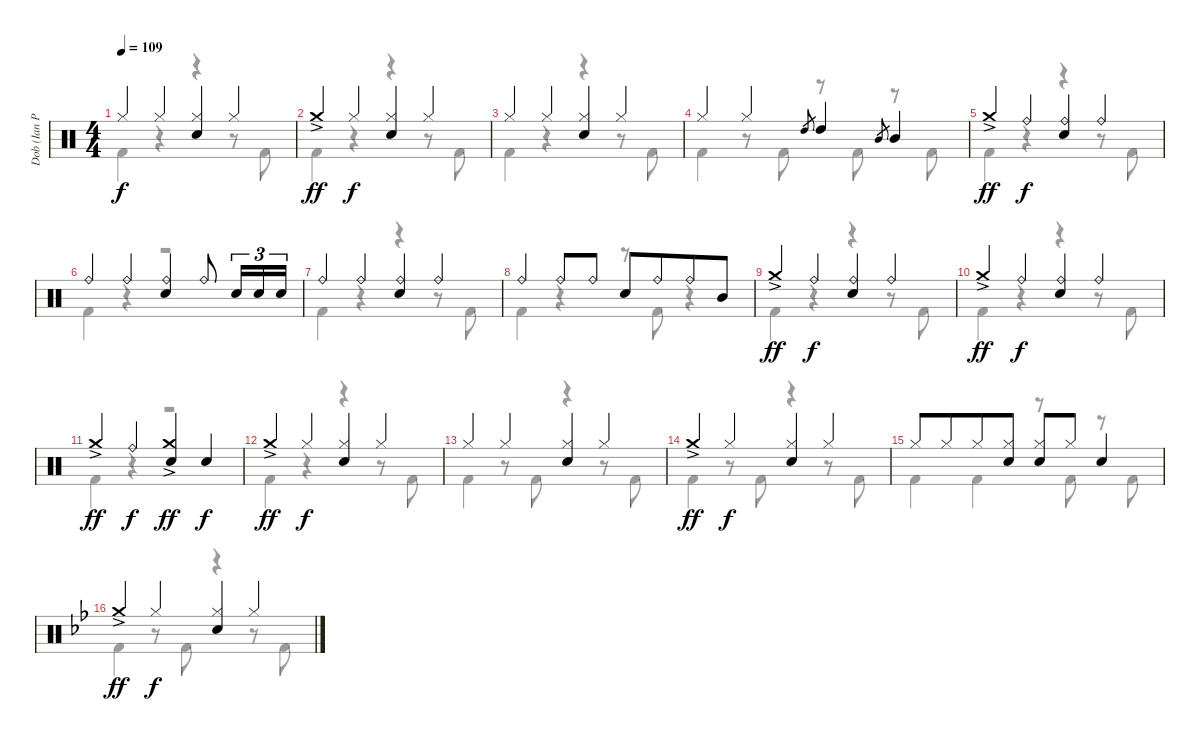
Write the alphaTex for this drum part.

\track ("Dob (Ian Paice)" "Dob (Ian P") {instrument percussion}
\staff {score}
\articulation defaults
\voice
\ts (4 4)
\tempo 109
\clef neutral
\ks c "Hi-Hat (closed)".4{dy f} "Hi-Hat (closed)".4
("Hi-Hat (closed)" "Electric Snare (hit)").4 "Hi-Hat (closed)".4 |
"Crash medium (hit)"{ac}.4{dy ff} "Hi-Hat (closed)".4{dy f} ("Hi-Hat (closed)" "Electric Snare (hit)").4 "Hi-Hat (closed)".4 |
"Hi-Hat (closed)".4 "Hi-Hat (closed)".4 ("Hi-Hat (closed)" "Electric Snare (hit)").4 "Hi-Hat (closed)".4 |
"Hi-Hat (closed)".4 "Hi-Hat (closed)".4 "High Tom (hit)"{h}.8{gr} "High Tom (hit)".4 "Mid Tom (hit)"{h}.8{gr} "Mid Tom (hit)".4 |
"Crash medium (hit)"{ac}.4{dy ff} "Ride (bell)".4{dy f} ("Ride (bell)" "Electric Snare (hit)").4 "Ride (bell)".4 |
"Ride (bell)".4 "Ride (bell)".4 ("Ride (bell)" "Electric Snare (hit)").4 "Ride (bell)".8 "Electric Snare (hit)".16{tu (3 2)} "Electric Snare (hit)".16{tu (3 2)} "Electric Snare (hit)".16{tu (3 2)} |
"Ride (bell)".4 "Ride (bell)".4 ("Ride (bell)" "Electric Snare (hit)").4 "Ride (bell)".4 |
"Ride (bell)".4 "Ride (bell)".8 "Ride (bell)".8 "Electric Snare (hit)".8 "Ride (bell)".8{beam merge} "Ride (bell)".8 "Mid Tom (hit)".8 |
"Crash medium (hit)"{ac}.4{dy ff} "Ride (bell)".4{dy f} ("Ride (bell)" "Electric Snare (hit)").4 "Ride (bell)".4 |
"Crash medium (hit)"{ac}.4{dy ff} "Ride (bell)".4{dy f} ("Ride (bell)" "Electric Snare (hit)").4 "Ride (bell)".4 |
"Crash medium (hit)"{ac}.4{dy ff} "Ride (bell)".4{dy f} ("Crash medium (hit)"{ac} "Electric Snare (hit)").4{dy ff} "Electric Snare (hit)".4{dy f} |
"Crash medium (hit)"{ac}.4{dy ff} "Hi-Hat (closed)".4{dy f} ("Hi-Hat (closed)" "Electric Snare (hit)").4 "Hi-Hat (closed)".4 |
"Hi-Hat (closed)".4 "Hi-Hat (closed)".4 ("Hi-Hat (closed)" "Electric Snare (hit)").4 "Hi-Hat (closed)".4 |
"Crash medium (hit)"{ac}.4{dy ff} "Hi-Hat (closed)".4{dy f} ("Hi-Hat (closed)" "Electric Snare (hit)").4 "Hi-Hat (closed)".4 |
"Hi-Hat (closed)".8 "Hi-Hat (closed)".8{beam merge} "Hi-Hat (closed)".8 ("Hi-Hat (closed)" "Electric Snare (hit)").8 ("Hi-Hat (closed)" "Electric Snare (hit)").8 "Hi-Hat (closed)".8 "Electric Snare (hit)".4 |
\ks bb "Crash medium (hit)"{ac}.4{dy ff} "Hi-Hat (closed)".4{dy f}
("Hi-Hat (closed)" "Electric Snare (hit)").4 "Hi-Hat (closed)".4
\voice
\clef neutral
\ottava regular
\simile none
\ks c "Kick (hit) 2".4{dy f}
r.4 r.4 r.8 "Kick (hit) 2".8 |
"Kick (hit) 2".4 r.4 r.4 r.8 "Kick (hit) 2".8 |
"Kick (hit) 2".4 r.4 r.4 r.8 "Kick (hit) 2".8 |
"Kick (hit) 2".4 r.8 "Kick (hit) 2".8 r.8 "Kick (hit) 2".8 r.8 "Kick (hit) 2".8 |
"Kick (hit) 2".4 r.4 r.4 r.8 "Kick (hit) 2".8 |
"Kick (hit) 2".4 r.4 r.2 |
"Kick (hit) 2".4 r.4 r.4 r.8 "Kick (hit) 2".8 |
"Kick (hit) 2".4 r.4 r.8 "Kick (hit) 2".8 r.4 |
"Kick (hit) 2".4 r.4 r.4 r.8 "Kick (hit) 2".8 |
"Kick (hit) 2".4 r.4 r.4 r.8 "Kick (hit) 2".8 |
"Kick (hit) 2".4 r.4 r.2 |
"Kick (hit) 2".4 r.4 r.4 r.8 "Kick (hit) 2".8 |
"Kick (hit) 2".4 r.8 "Kick (hit) 2".8 r.4 r.8 "Kick (hit) 2".8 |
"Kick (hit) 2".4 r.8 "Kick (hit) 2".8 r.4 r.8 "Kick (hit) 2".8 |
"Kick (hit) 2".4 "Kick (hit) 2".4 r.8 "Kick (hit) 2".8 r.8 "Kick (hit) 2".8 |
\ks bb "Kick (hit) 2".4
r.8 "Kick (hit) 2".8 r.4 r.8 "Kick (hit) 2".8
